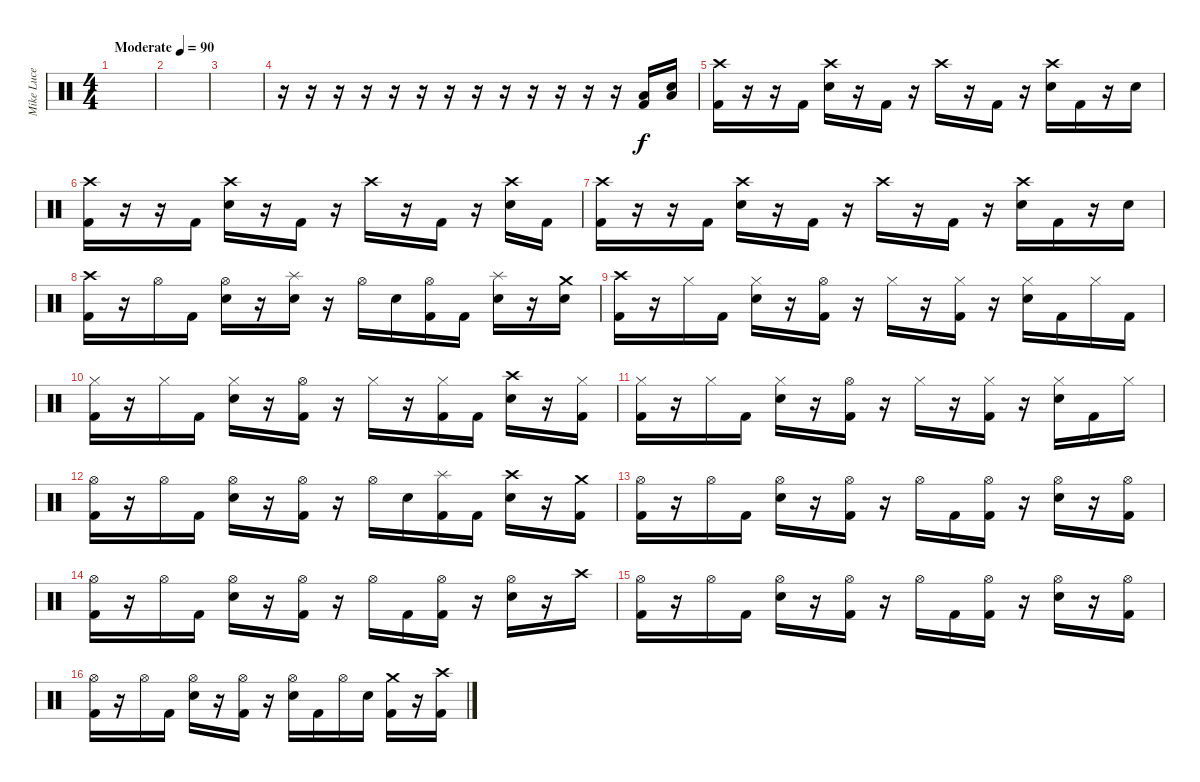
\track ("Mike Luce" "Mike Luce") {instrument percussion}
\staff {score}
\articulation defaults
\ts (4 4)
\tempo (90 "Moderate")
\clef neutral
\ks c
|
|
|
r.16 r.16 r.16 r.16 r.16 r.16 r.16 r.16 r.16 r.16 r.16 r.16 r.16 ("Low Tom (hit)" "Kick (hit) 2").16 ("Electric Snare (hit)" "Low Tom (hit)").16 |
("Crash high (hit)" "Kick (hit) 2").16 r.16 r.16 "Kick (hit) 2".16 ("Crash high (hit)" "Electric Snare (hit)").16 r.16 "Kick (hit) 2".16 r.16 "Crash high (hit)".16 r.16 "Kick (hit) 2".16 r.16 ("Crash high (hit)" "Electric Snare (hit)").16 "Kick (hit) 2".16 r.16 "Electric Snare (hit)".16 |
("Crash high (hit)" "Kick (hit) 2").16 r.16 r.16 "Kick (hit) 2".16 ("Crash high (hit)" "Electric Snare (hit)").16 r.16 "Kick (hit) 2".16 r.16 "Crash high (hit)".16 r.16 "Kick (hit) 2".16 r.16 ("Crash high (hit)" "Electric Snare (hit)").16 "Kick (hit) 2".16 |
("Crash high (hit)" "Kick (hit) 2").16 r.16 r.16 "Kick (hit) 2".16 ("Crash high (hit)" "Electric Snare (hit)").16 r.16 "Kick (hit) 2".16 r.16 "Crash high (hit)".16 r.16 "Kick (hit) 2".16 r.16 ("Crash high (hit)" "Electric Snare (hit)").16 "Kick (hit) 2".16 r.16 "Electric Snare (hit)".16 |
("Crash high (hit)" "Kick (hit) 2").16 r.16 "Hi-Hat (open)".16 "Kick (hit) 2".16 ("Hi-Hat (open)" "Electric Snare (hit)").16 r.16 ("Splash (hit)" "Electric Snare (hit)").16 r.16 "Hi-Hat (open)".16 "Electric Snare (hit)".16 ("Hi-Hat (open)" "Kick (hit) 2").16 "Kick (hit) 2".16 ("Splash (hit)" "Electric Snare (hit)").16 r.16 ("Crash medium (hit)" "Electric Snare (hit)").16 |
("Crash high (hit)" "Kick (hit) 2").16 r.16 "Hi-Hat (closed)".16 "Kick (hit) 2".16 ("Hi-Hat (closed)" "Electric Snare (hit)").16 r.16 ("Hi-Hat (open)" "Kick (hit) 2").16 r.16 "Hi-Hat (closed)".16 r.16 ("Hi-Hat (closed)" "Kick (hit) 2").16 r.16 ("Hi-Hat (closed)" "Electric Snare (hit)").16 "Kick (hit) 2".16 "Hi-Hat (closed)".16 "Kick (hit) 2".16 |
("Hi-Hat (closed)" "Kick (hit) 2").16 r.16 "Hi-Hat (closed)".16 "Kick (hit) 2".16 ("Hi-Hat (closed)" "Electric Snare (hit)").16 r.16 ("Hi-Hat (open)" "Kick (hit) 2").16 r.16 "Hi-Hat (closed)".16 r.16 ("Hi-Hat (closed)" "Kick (hit) 2").16 "Kick (hit) 2".16 ("Crash high (hit)" "Electric Snare (hit)").16 r.16 ("Hi-Hat (closed)" "Kick (hit) 2").16 |
("Hi-Hat (closed)" "Kick (hit) 2").16 r.16 "Hi-Hat (closed)".16 "Kick (hit) 2".16 ("Hi-Hat (closed)" "Electric Snare (hit)").16 r.16 ("Hi-Hat (open)" "Kick (hit) 2").16 r.16 "Hi-Hat (closed)".16 r.16 ("Hi-Hat (closed)" "Kick (hit) 2").16 r.16 ("Hi-Hat (closed)" "Electric Snare (hit)").16 "Kick (hit) 2".16 "Hi-Hat (closed)".16 |
("Hi-Hat (open)" "Kick (hit) 2").16 r.16 "Hi-Hat (open)".16 "Kick (hit) 2".16 ("Hi-Hat (open)" "Electric Snare (hit)").16 r.16 ("Hi-Hat (open)" "Kick (hit) 2").16 r.16 "Hi-Hat (open)".16 "Electric Snare (hit)".16 ("Splash (hit)" "Kick (hit) 2").16 "Kick (hit) 2".16 ("Crash high (hit)" "Electric Snare (hit)").16 r.16 ("Crash medium (hit)" "Kick (hit) 2").16 |
("Hi-Hat (open)" "Kick (hit) 2").16 r.16 "Hi-Hat (open)".16 "Kick (hit) 2".16 ("Hi-Hat (open)" "Electric Snare (hit)").16 r.16 ("Hi-Hat (open)" "Kick (hit) 2").16 r.16 "Hi-Hat (open)".16 "Kick (hit) 2".16 ("Hi-Hat (open)" "Kick (hit) 2").16 r.16 ("Hi-Hat (open)" "Electric Snare (hit)").16 r.16 ("Hi-Hat (open)" "Kick (hit) 2").16 |
("Hi-Hat (open)" "Kick (hit) 2").16 r.16 "Hi-Hat (open)".16 "Kick (hit) 2".16 ("Hi-Hat (open)" "Electric Snare (hit)").16 r.16 ("Hi-Hat (open)" "Kick (hit) 2").16 r.16 "Hi-Hat (open)".16 "Kick (hit) 2".16 ("Hi-Hat (open)" "Kick (hit) 2").16 r.16 ("Hi-Hat (open)" "Electric Snare (hit)").16 r.16 "Crash high (hit)".16 |
("Hi-Hat (open)" "Kick (hit) 2").16 r.16 "Hi-Hat (open)".16 "Kick (hit) 2".16 ("Hi-Hat (open)" "Electric Snare (hit)").16 r.16 ("Hi-Hat (open)" "Kick (hit) 2").16 r.16 "Hi-Hat (open)".16 "Kick (hit) 2".16 ("Hi-Hat (open)" "Kick (hit) 2").16 r.16 ("Hi-Hat (open)" "Electric Snare (hit)").16 r.16 ("Hi-Hat (open)" "Kick (hit) 2").16 |
("Hi-Hat (open)" "Kick (hit) 2").16 r.16 "Hi-Hat (open)".16 "Kick (hit) 2".16 ("Hi-Hat (open)" "Electric Snare (hit)").16 r.16 ("Hi-Hat (open)" "Kick (hit) 2").16 r.16 ("Hi-Hat (open)" "Electric Snare (hit)").16 "Kick (hit) 2".16 "Hi-Hat (open)".16 "Electric Snare (hit)".16 ("Crash medium (hit)" "Kick (hit) 2").16 r.16 ("Crash high (hit)" "Kick (hit) 2").16
